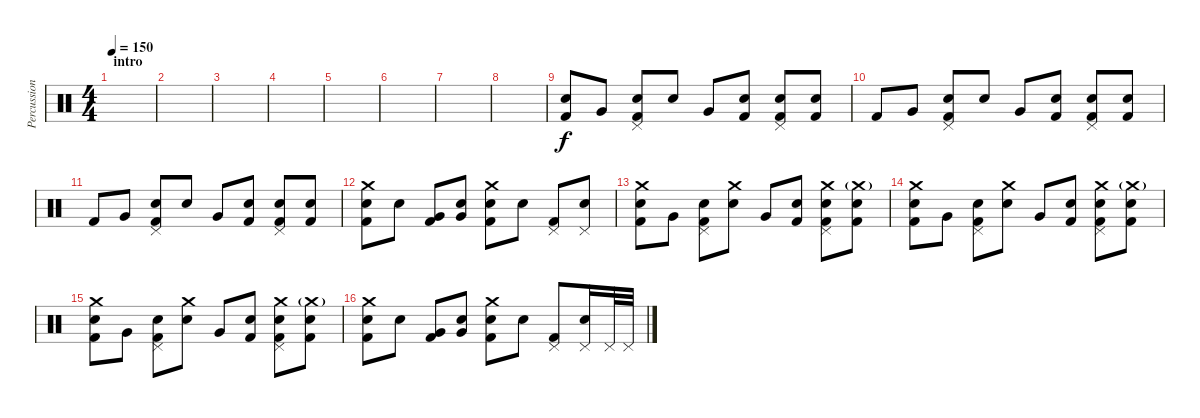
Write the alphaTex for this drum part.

\track ("Percussions" "Percussion") {instrument percussion}
\staff {score}
\articulation defaults
\ts (4 4)
\section ("" "intro")
\tempo 150
\clef neutral
\ks c
|
|
|
|
|
|
|
|
("Electric Snare (hit)" "Kick (hit) 2").8 "Very Low Tom (hit)".8 ("Electric Snare (hit)" "Pedal Hi-Hat (hit)" "Kick (hit) 2").8 "Electric Snare (hit)".8 "Very Low Tom (hit)".8 ("Electric Snare (hit)" "Kick (hit) 2").8 ("Electric Snare (hit)" "Pedal Hi-Hat (hit)" "Kick (hit) 2").8 ("Electric Snare (hit)" "Kick (hit) 2").8 |
"Kick (hit) 2".8 "Very Low Tom (hit)".8 ("Electric Snare (hit)" "Pedal Hi-Hat (hit)" "Kick (hit) 2").8 "Electric Snare (hit)".8 "Very Low Tom (hit)".8 ("Electric Snare (hit)" "Kick (hit) 2").8 ("Electric Snare (hit)" "Pedal Hi-Hat (hit)" "Kick (hit) 2").8 ("Electric Snare (hit)" "Kick (hit) 2").8 |
"Kick (hit) 2".8 "Very Low Tom (hit)".8 ("Electric Snare (hit)" "Pedal Hi-Hat (hit)" "Kick (hit) 2").8 "Electric Snare (hit)".8 "Very Low Tom (hit)".8 ("Electric Snare (hit)" "Kick (hit) 2").8 ("Electric Snare (hit)" "Pedal Hi-Hat (hit)" "Kick (hit) 2").8 ("Electric Snare (hit)" "Kick (hit) 2").8 |
("Crash medium (hit)" "Electric Snare (hit)" "Kick (hit) 2").8 "Electric Snare (hit)".8 ("Very Low Tom (hit)" "Kick (hit) 2").8 ("Very Low Tom (hit)" "Electric Snare (hit)").8 ("Crash medium (hit)" "Electric Snare (hit)" "Kick (hit) 2").8 "Electric Snare (hit)".8 ("Pedal Hi-Hat (hit)" "Kick (hit) 2").8 ("Pedal Hi-Hat (hit)" "Electric Snare (hit)").8 |
("Electric Snare (hit)" "Crash medium (hit)" "Kick (hit) 2").8 "Very Low Tom (hit)".8 ("Electric Snare (hit)" "Pedal Hi-Hat (hit)" "Kick (hit) 2").8 ("Electric Snare (hit)" "Crash medium (hit)").8 "Very Low Tom (hit)".8 ("Electric Snare (hit)" "Kick (hit) 2").8 ("Electric Snare (hit)" "Pedal Hi-Hat (hit)" "Crash medium (hit)" "Kick (hit) 2").8 ("Electric Snare (hit)" "Crash medium (hit)"{g} "Kick (hit) 2").8 |
("Electric Snare (hit)" "Crash medium (hit)" "Kick (hit) 2").8 "Very Low Tom (hit)".8 ("Electric Snare (hit)" "Pedal Hi-Hat (hit)" "Kick (hit) 2").8 ("Electric Snare (hit)" "Crash medium (hit)").8 "Very Low Tom (hit)".8 ("Electric Snare (hit)" "Kick (hit) 2").8 ("Electric Snare (hit)" "Pedal Hi-Hat (hit)" "Crash medium (hit)" "Kick (hit) 2").8 ("Electric Snare (hit)" "Crash medium (hit)"{g} "Kick (hit) 2").8 |
("Electric Snare (hit)" "Crash medium (hit)" "Kick (hit) 2").8 "Very Low Tom (hit)".8 ("Electric Snare (hit)" "Pedal Hi-Hat (hit)" "Kick (hit) 2").8 ("Electric Snare (hit)" "Crash medium (hit)").8 "Very Low Tom (hit)".8 ("Electric Snare (hit)" "Kick (hit) 2").8 ("Electric Snare (hit)" "Pedal Hi-Hat (hit)" "Crash medium (hit)" "Kick (hit) 2").8 ("Electric Snare (hit)" "Crash medium (hit)"{g} "Kick (hit) 2").8 |
("Electric Snare (hit)" "Crash medium (hit)" "Kick (hit) 2").8 "Electric Snare (hit)".8 ("Very Low Tom (hit)" "Kick (hit) 2").8 ("Very Low Tom (hit)" "Electric Snare (hit)").8 ("Crash medium (hit)" "Electric Snare (hit)" "Kick (hit) 2").8 "Electric Snare (hit)".8 ("Pedal Hi-Hat (hit)" "Kick (hit) 2").8 ("Pedal Hi-Hat (hit)" "Electric Snare (hit)").16 "Pedal Hi-Hat (hit)".32 "Pedal Hi-Hat (hit)".32
